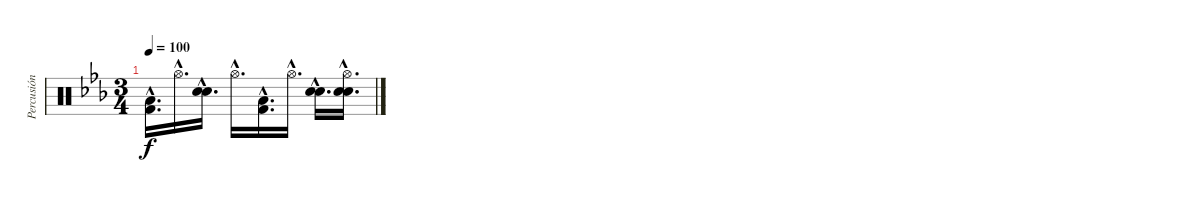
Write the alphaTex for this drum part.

\track ("Percusión" "Percusión") {instrument percussion}
\staff {score}
\articulation defaults
\ts (3 4)
\tempo 100
\clef neutral
\ks eb
("Low Floor Tom (hit)"{hac} "Kick (hit) 2"{hac}).16{d dy f} "Hi-Hat (open)"{hac pm}.16{d} ("Electric Snare (hit)"{hac} "Snare (hit) 2"{hac}).16{d} "Hi-Hat (open)"{hac pm}.16{d} ("Low Floor Tom (hit)"{hac} "Kick (hit) 2"{hac}).16{d} "Hi-Hat (open)"{hac pm}.16{d} ("Electric Snare (hit)"{hac} "Snare (hit) 2"{hac}).16{d} ("Hi-Hat (open)"{hac pm} "Electric Snare (hit)"{hac} "Snare (hit) 2"{hac}).16{d}
